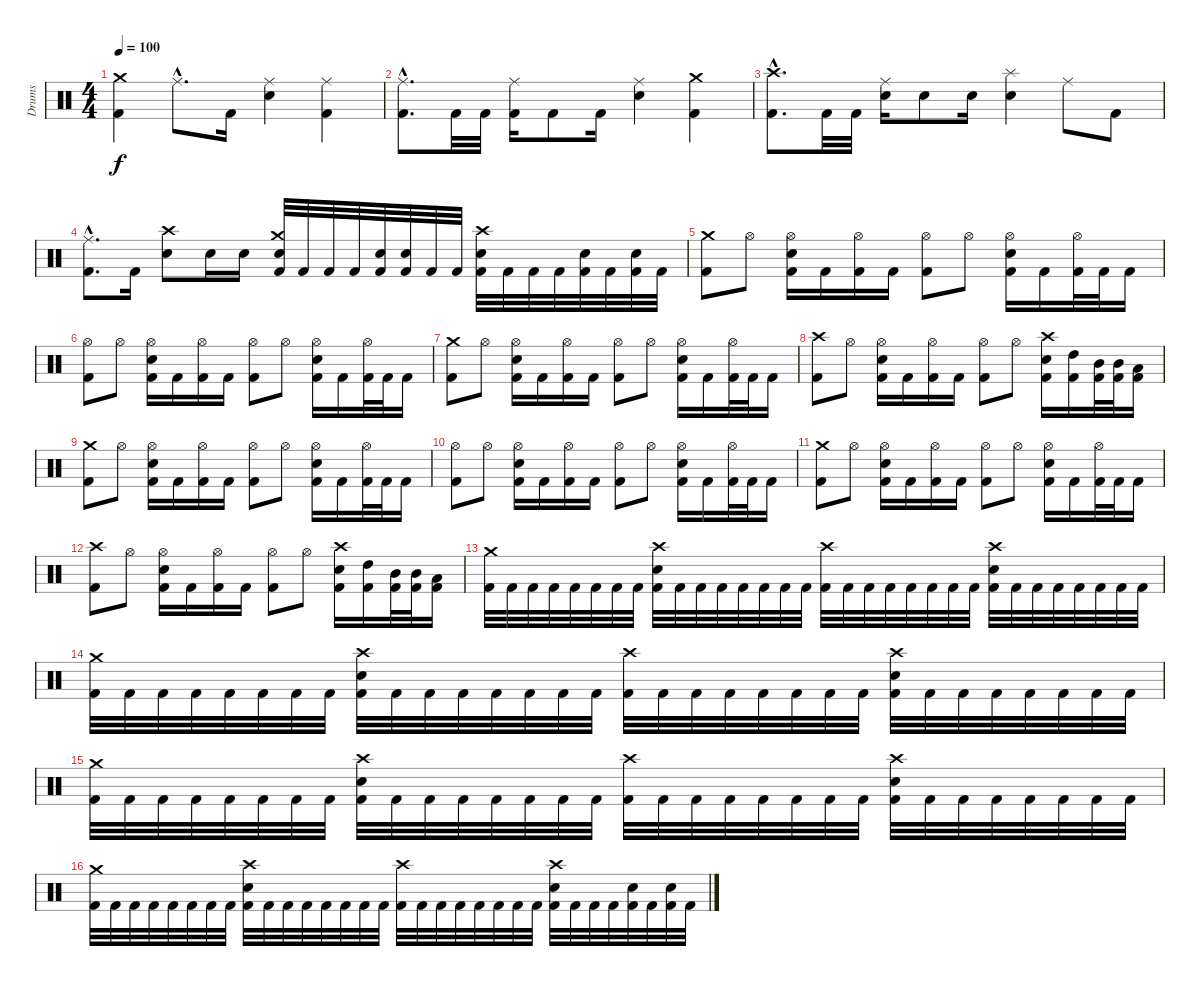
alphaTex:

\track ("Drums" "Drums") {instrument percussion}
\staff {score}
\articulation defaults
\ts (4 4)
\tempo 100
\clef neutral
\ks c
("Kick (hit) 2" "Crash medium (hit)").4{dy f} "Ride (middle)"{hac}.8{d} "Kick (hit) 2".16 ("Electric Snare (hit)" "Ride (middle)").4 ("Kick (hit) 2" "Ride (middle)").4 |
("Kick (hit) 2"{hac} "Ride (middle)"{hac}).8{d} "Kick (hit) 2".32 "Kick (hit) 2".32 ("Kick (hit) 2" "Ride (middle)").16 "Kick (hit) 2".8 "Kick (hit) 2".16 ("Electric Snare (hit)" "Ride (middle)").4 ("Kick (hit) 2" "Crash medium (hit)").4 |
("Kick (hit) 2"{hac} "Crash high (hit)"{hac}).8{d} "Kick (hit) 2".32 "Kick (hit) 2".32 ("Electric Snare (hit)" "Ride (middle)").16 "Electric Snare (hit)".8 "Electric Snare (hit)".16 ("Electric Snare (hit)" "Splash (hit)").4 "Ride (middle)".8 "Kick (hit) 2".8 |
("Kick (hit) 2"{hac} "Ride (middle)"{hac}).8{d} "Kick (hit) 2".16 ("Electric Snare (hit)" "Crash high (hit)").8 "Electric Snare (hit)".16 "Electric Snare (hit)".16 ("Kick (hit) 2" "Electric Snare (hit)" "Crash medium (hit)").32 "Kick (hit) 2".32 "Kick (hit) 2".32 "Kick (hit) 2".32 ("Kick (hit) 2" "Electric Snare (hit)").32 ("Kick (hit) 2" "Electric Snare (hit)").32 "Kick (hit) 2".32 "Kick (hit) 2".32 ("Kick (hit) 2" "Electric Snare (hit)" "Crash high (hit)").32 "Kick (hit) 2".32 "Kick (hit) 2".32 "Kick (hit) 2".32 ("Kick (hit) 2" "Electric Snare (hit)").32 "Kick (hit) 2".32 ("Kick (hit) 2" "Electric Snare (hit)").32 "Kick (hit) 2".32 |
("Kick (hit) 2" "Crash medium (hit)").8 "Hi-Hat (open)".8 ("Kick (hit) 2" "Electric Snare (hit)" "Hi-Hat (open)").16 "Kick (hit) 2".16 ("Kick (hit) 2" "Hi-Hat (open)").16 "Kick (hit) 2".16 ("Kick (hit) 2" "Hi-Hat (open)").8 "Hi-Hat (open)".8 ("Kick (hit) 2" "Electric Snare (hit)" "Hi-Hat (open)").16 "Kick (hit) 2".16 ("Kick (hit) 2" "Hi-Hat (open)").32 "Kick (hit) 2".32 "Kick (hit) 2".16 |
("Kick (hit) 2" "Hi-Hat (open)").8 "Hi-Hat (open)".8 ("Kick (hit) 2" "Electric Snare (hit)" "Hi-Hat (open)").16 "Kick (hit) 2".16 ("Kick (hit) 2" "Hi-Hat (open)").16 "Kick (hit) 2".16 ("Kick (hit) 2" "Hi-Hat (open)").8 "Hi-Hat (open)".8 ("Kick (hit) 2" "Electric Snare (hit)" "Hi-Hat (open)").16 "Kick (hit) 2".16 ("Kick (hit) 2" "Hi-Hat (open)").32 "Kick (hit) 2".32 "Kick (hit) 2".16 |
("Kick (hit) 2" "Crash medium (hit)").8 "Hi-Hat (open)".8 ("Kick (hit) 2" "Electric Snare (hit)" "Hi-Hat (open)").16 "Kick (hit) 2".16 ("Kick (hit) 2" "Hi-Hat (open)").16 "Kick (hit) 2".16 ("Kick (hit) 2" "Hi-Hat (open)").8 "Hi-Hat (open)".8 ("Kick (hit) 2" "Electric Snare (hit)" "Hi-Hat (open)").16 "Kick (hit) 2".16 ("Kick (hit) 2" "Hi-Hat (open)").32 "Kick (hit) 2".32 "Kick (hit) 2".16 |
("Kick (hit) 2" "Crash high (hit)").8 "Hi-Hat (open)".8 ("Kick (hit) 2" "Electric Snare (hit)" "Hi-Hat (open)").16 "Kick (hit) 2".16 ("Kick (hit) 2" "Hi-Hat (open)").16 "Kick (hit) 2".16 ("Kick (hit) 2" "Hi-Hat (open)").8 "Hi-Hat (open)".8 ("Kick (hit) 2" "Electric Snare (hit)" "Crash high (hit)").16 ("Kick (hit) 2" "High Tom (hit)").16 ("Kick (hit) 2" "Mid Tom (hit)").32 ("Kick (hit) 2" "Mid Tom (hit)").32 ("Kick (hit) 2" "Low Tom (hit)").16 |
("Kick (hit) 2" "Crash medium (hit)").8 "Hi-Hat (open)".8 ("Kick (hit) 2" "Electric Snare (hit)" "Hi-Hat (open)").16 "Kick (hit) 2".16 ("Kick (hit) 2" "Hi-Hat (open)").16 "Kick (hit) 2".16 ("Kick (hit) 2" "Hi-Hat (open)").8 "Hi-Hat (open)".8 ("Kick (hit) 2" "Electric Snare (hit)" "Hi-Hat (open)").16 "Kick (hit) 2".16 ("Kick (hit) 2" "Hi-Hat (open)").32 "Kick (hit) 2".32 "Kick (hit) 2".16 |
("Kick (hit) 2" "Hi-Hat (open)").8 "Hi-Hat (open)".8 ("Kick (hit) 2" "Electric Snare (hit)" "Hi-Hat (open)").16 "Kick (hit) 2".16 ("Kick (hit) 2" "Hi-Hat (open)").16 "Kick (hit) 2".16 ("Kick (hit) 2" "Hi-Hat (open)").8 "Hi-Hat (open)".8 ("Kick (hit) 2" "Electric Snare (hit)" "Hi-Hat (open)").16 "Kick (hit) 2".16 ("Kick (hit) 2" "Hi-Hat (open)").32 "Kick (hit) 2".32 "Kick (hit) 2".16 |
("Kick (hit) 2" "Crash medium (hit)").8 "Hi-Hat (open)".8 ("Kick (hit) 2" "Electric Snare (hit)" "Hi-Hat (open)").16 "Kick (hit) 2".16 ("Kick (hit) 2" "Hi-Hat (open)").16 "Kick (hit) 2".16 ("Kick (hit) 2" "Hi-Hat (open)").8 "Hi-Hat (open)".8 ("Kick (hit) 2" "Electric Snare (hit)" "Hi-Hat (open)").16 "Kick (hit) 2".16 ("Kick (hit) 2" "Hi-Hat (open)").32 "Kick (hit) 2".32 "Kick (hit) 2".16 |
("Kick (hit) 2" "Crash high (hit)").8 "Hi-Hat (open)".8 ("Kick (hit) 2" "Electric Snare (hit)" "Hi-Hat (open)").16 "Kick (hit) 2".16 ("Kick (hit) 2" "Hi-Hat (open)").16 "Kick (hit) 2".16 ("Kick (hit) 2" "Hi-Hat (open)").8 "Hi-Hat (open)".8 ("Kick (hit) 2" "Electric Snare (hit)" "Crash high (hit)").16 ("Kick (hit) 2" "High Tom (hit)").16 ("Kick (hit) 2" "Mid Tom (hit)").32 ("Kick (hit) 2" "Mid Tom (hit)").32 ("Kick (hit) 2" "Low Tom (hit)").16 |
("Kick (hit) 2" "Crash medium (hit)").32 "Kick (hit) 2".32 "Kick (hit) 2".32 "Kick (hit) 2".32 "Kick (hit) 2".32 "Kick (hit) 2".32 "Kick (hit) 2".32 "Kick (hit) 2".32 ("Kick (hit) 2" "Electric Snare (hit)" "Crash high (hit)").32 "Kick (hit) 2".32 "Kick (hit) 2".32 "Kick (hit) 2".32 "Kick (hit) 2".32 "Kick (hit) 2".32 "Kick (hit) 2".32 "Kick (hit) 2".32 ("Kick (hit) 2" "Crash high (hit)").32 "Kick (hit) 2".32 "Kick (hit) 2".32 "Kick (hit) 2".32 "Kick (hit) 2".32 "Kick (hit) 2".32 "Kick (hit) 2".32 "Kick (hit) 2".32 ("Kick (hit) 2" "Electric Snare (hit)" "Crash high (hit)").32 "Kick (hit) 2".32 "Kick (hit) 2".32 "Kick (hit) 2".32 "Kick (hit) 2".32 "Kick (hit) 2".32 "Kick (hit) 2".32 "Kick (hit) 2".32 |
("Kick (hit) 2" "Crash medium (hit)").32 "Kick (hit) 2".32 "Kick (hit) 2".32 "Kick (hit) 2".32 "Kick (hit) 2".32 "Kick (hit) 2".32 "Kick (hit) 2".32 "Kick (hit) 2".32 ("Kick (hit) 2" "Electric Snare (hit)" "Crash high (hit)").32 "Kick (hit) 2".32 "Kick (hit) 2".32 "Kick (hit) 2".32 "Kick (hit) 2".32 "Kick (hit) 2".32 "Kick (hit) 2".32 "Kick (hit) 2".32 ("Kick (hit) 2" "Crash high (hit)").32 "Kick (hit) 2".32 "Kick (hit) 2".32 "Kick (hit) 2".32 "Kick (hit) 2".32 "Kick (hit) 2".32 "Kick (hit) 2".32 "Kick (hit) 2".32 ("Kick (hit) 2" "Electric Snare (hit)" "Crash high (hit)").32 "Kick (hit) 2".32 "Kick (hit) 2".32 "Kick (hit) 2".32 "Kick (hit) 2".32 "Kick (hit) 2".32 "Kick (hit) 2".32 "Kick (hit) 2".32 |
("Kick (hit) 2" "Crash medium (hit)").32 "Kick (hit) 2".32 "Kick (hit) 2".32 "Kick (hit) 2".32 "Kick (hit) 2".32 "Kick (hit) 2".32 "Kick (hit) 2".32 "Kick (hit) 2".32 ("Kick (hit) 2" "Electric Snare (hit)" "Crash high (hit)").32 "Kick (hit) 2".32 "Kick (hit) 2".32 "Kick (hit) 2".32 "Kick (hit) 2".32 "Kick (hit) 2".32 "Kick (hit) 2".32 "Kick (hit) 2".32 ("Kick (hit) 2" "Crash high (hit)").32 "Kick (hit) 2".32 "Kick (hit) 2".32 "Kick (hit) 2".32 "Kick (hit) 2".32 "Kick (hit) 2".32 "Kick (hit) 2".32 "Kick (hit) 2".32 ("Kick (hit) 2" "Electric Snare (hit)" "Crash high (hit)").32 "Kick (hit) 2".32 "Kick (hit) 2".32 "Kick (hit) 2".32 "Kick (hit) 2".32 "Kick (hit) 2".32 "Kick (hit) 2".32 "Kick (hit) 2".32 |
("Kick (hit) 2" "Crash medium (hit)").32 "Kick (hit) 2".32 "Kick (hit) 2".32 "Kick (hit) 2".32 "Kick (hit) 2".32 "Kick (hit) 2".32 "Kick (hit) 2".32 "Kick (hit) 2".32 ("Kick (hit) 2" "Electric Snare (hit)" "Crash high (hit)").32 "Kick (hit) 2".32 "Kick (hit) 2".32 "Kick (hit) 2".32 "Kick (hit) 2".32 "Kick (hit) 2".32 "Kick (hit) 2".32 "Kick (hit) 2".32 ("Kick (hit) 2" "Crash high (hit)").32 "Kick (hit) 2".32 "Kick (hit) 2".32 "Kick (hit) 2".32 "Kick (hit) 2".32 "Kick (hit) 2".32 "Kick (hit) 2".32 "Kick (hit) 2".32 ("Kick (hit) 2" "Electric Snare (hit)" "Crash high (hit)").32 "Kick (hit) 2".32 "Kick (hit) 2".32 "Kick (hit) 2".32 ("Kick (hit) 2" "Electric Snare (hit)").32 "Kick (hit) 2".32 ("Kick (hit) 2" "Electric Snare (hit)").32 "Kick (hit) 2".32
